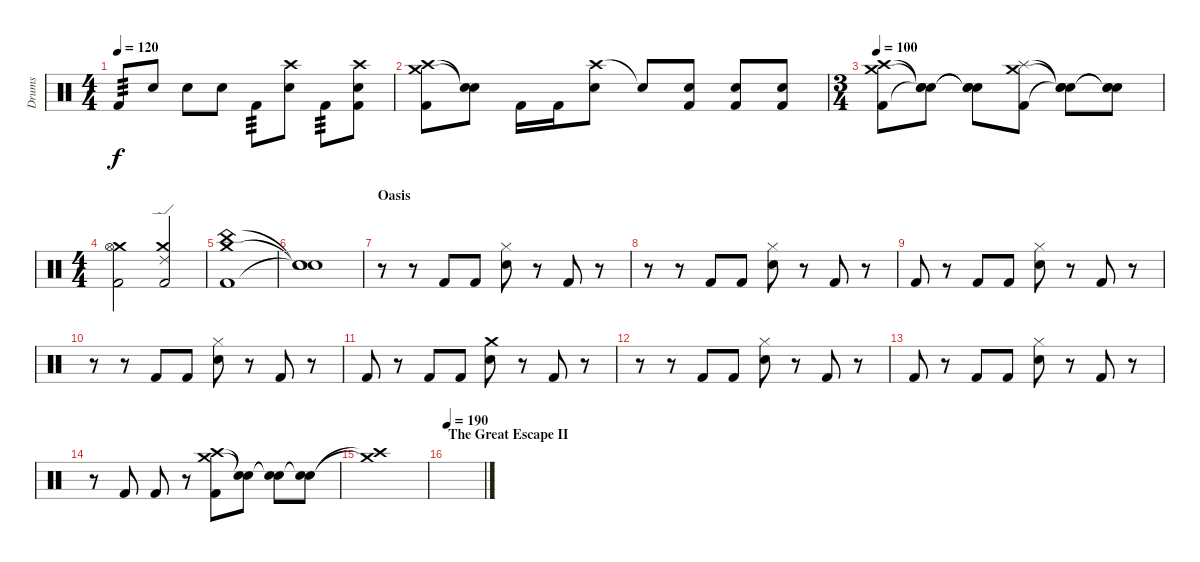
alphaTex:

\track ("Drums" "Drums") {instrument percussion}
\staff {score}
\articulation defaults
\ts (4 4)
\tempo 120
\clef neutral
\ks c "Kick (hit) 2".8{tp 3 dy f} "Snare (hit) 2".8 "Snare (hit) 2".8 "Snare (hit) 2".8 "Kick (hit) 2".8{tp 3}
("Crash high (hit)" "Snare (hit) 2").8 "Kick (hit) 2".8{tp 3} ("Crash high (hit)" "Snare (hit) 2" "Kick (hit) 2").8 |
("Crash medium (hit)" "Crash high (hit)" "Kick (hit) 2").8 ("Snare (hit)"{t} "Snare (hit)"{t}).8 "Kick (hit) 2".16 "Kick (hit) 2".16 ("Crash high (hit)" "Snare (hit) 2").8 "Snare (hit)"{t}.8 ("Snare (hit) 2" "Kick (hit) 2").8 ("Snare (hit) 2" "Kick (hit) 2").8 ("Snare (hit) 2" "Kick (hit) 2").8 |
\ts (3 4)
\tempo 100
("Crash medium (hit)" "Crash high (hit)" "Kick (hit) 2").8 ("Snare (hit)"{t} "Snare (hit)"{t} "Snare (hit)"{t}).8 ("Snare (hit)"{t} "Snare (hit)"{t} "Snare (hit)"{t}).8 ("Crash medium (hit)" "Splash (hit)" "Kick (hit) 2").8 ("Snare (hit)"{t} "Snare (hit)"{t} "Snare (hit)"{t}).8 ("Snare (hit)"{t} "Snare (hit)"{t} "Snare (hit)"{t}).8 |
\ts (4 4)
("Crash medium (hit)" "Hi-Hat (open)" "Kick (hit) 2").2 ("Crash medium (hit)" "Ride (edge) 2" "Kick (hit) 2").2 |
("Crash medium (hit)" "China (hit)" "Kick (hit) 2").1{volume 0} |
("Snare (hit)"{t} "Snare (hit)"{t} "Snare (hit)"{t}).1 |
\section ("" "Oasis")
r.8{volume 16} r.8 "Kick (hit) 2".8 "Kick (hit) 2".8 ("Hi-Hat (closed)" "Snare (hit) 2").8 r.8 "Kick (hit) 2".8 r.8 |
r.8 r.8 "Kick (hit) 2".8 "Kick (hit) 2".8 ("Hi-Hat (closed)" "Snare (hit) 2").8 r.8 "Kick (hit) 2".8 r.8 |
"Kick (hit) 2".8 r.8 "Kick (hit) 2".8 "Kick (hit) 2".8 ("Hi-Hat (closed)" "Snare (hit) 2").8 r.8 "Kick (hit) 2".8 r.8 |
r.8 r.8 "Kick (hit) 2".8 "Kick (hit) 2".8 ("Hi-Hat (closed)" "Snare (hit) 2").8 r.8 "Kick (hit) 2".8 r.8 |
"Kick (hit) 2".8 r.8 "Kick (hit) 2".8 "Kick (hit) 2".8 ("Crash medium (hit)" "Snare (hit) 2").8 r.8 "Kick (hit) 2".8 r.8 |
r.8 r.8 "Kick (hit) 2".8 "Kick (hit) 2".8 ("Hi-Hat (closed)" "Snare (hit) 2").8 r.8 "Kick (hit) 2".8 r.8 |
"Kick (hit) 2".8 r.8 "Kick (hit) 2".8 "Kick (hit) 2".8 ("Hi-Hat (closed)" "Snare (hit) 2").8 r.8 "Kick (hit) 2".8 r.8 |
r.8 "Kick (hit) 2".8 "Kick (hit) 2".8 r.8 ("Crash high (hit)" "Crash medium (hit)" "Kick (hit) 2").8 ("Snare (hit)"{t} "Snare (hit)"{t}).8 ("Snare (hit)"{t} "Snare (hit)"{t}).8 ("Snare (hit)"{t} "Snare (hit)"{t}).8 |
("Crash medium (hit)"{t} "Crash high (hit)"{t}).1 |
\section ("" "The Great Escape II")
\tempo 210
\tempo 190
